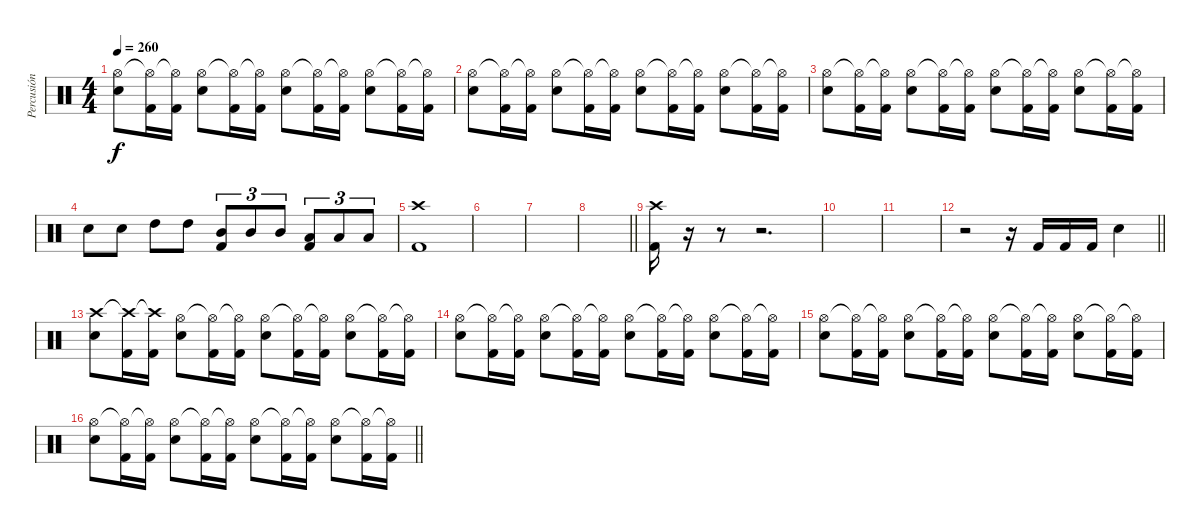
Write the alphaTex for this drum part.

\track ("Percusión" "Percusión") {instrument percussion}
\staff {score}
\articulation defaults
\ts (4 4)
\tempo 260
\clef neutral
\ks c
("Snare (hit) 2" "Hi-Hat (open)").8{dy f} ("Kick (hit) 2" "Hi-Hat (open)"{t}).16 ("Kick (hit) 2" "Hi-Hat (open)"{t}).16 ("Snare (hit) 2" "Hi-Hat (open)").8 ("Kick (hit) 2" "Hi-Hat (open)"{t}).16 ("Kick (hit) 2" "Hi-Hat (open)"{t}).16 ("Snare (hit) 2" "Hi-Hat (open)").8 ("Kick (hit) 2" "Hi-Hat (open)"{t}).16 ("Kick (hit) 2" "Hi-Hat (open)"{t}).16 ("Snare (hit) 2" "Hi-Hat (open)").8 ("Kick (hit) 2" "Hi-Hat (open)"{t}).16 ("Kick (hit) 2" "Hi-Hat (open)"{t}).16 |
("Snare (hit) 2" "Hi-Hat (open)").8 ("Kick (hit) 2" "Hi-Hat (open)"{t}).16 ("Kick (hit) 2" "Hi-Hat (open)"{t}).16 ("Snare (hit) 2" "Hi-Hat (open)").8 ("Kick (hit) 2" "Hi-Hat (open)"{t}).16 ("Kick (hit) 2" "Hi-Hat (open)"{t}).16 ("Snare (hit) 2" "Hi-Hat (open)").8 ("Kick (hit) 2" "Hi-Hat (open)"{t}).16 ("Kick (hit) 2" "Hi-Hat (open)"{t}).16 ("Snare (hit) 2" "Hi-Hat (open)").8 ("Kick (hit) 2" "Hi-Hat (open)"{t}).16 ("Kick (hit) 2" "Hi-Hat (open)"{t}).16 |
("Snare (hit) 2" "Hi-Hat (open)").8 ("Kick (hit) 2" "Hi-Hat (open)"{t}).16 ("Kick (hit) 2" "Hi-Hat (open)"{t}).16 ("Snare (hit) 2" "Hi-Hat (open)").8 ("Kick (hit) 2" "Hi-Hat (open)"{t}).16 ("Kick (hit) 2" "Hi-Hat (open)"{t}).16 ("Snare (hit) 2" "Hi-Hat (open)").8 ("Kick (hit) 2" "Hi-Hat (open)"{t}).16 ("Kick (hit) 2" "Hi-Hat (open)"{t}).16 ("Snare (hit) 2" "Hi-Hat (open)").8 ("Kick (hit) 2" "Hi-Hat (open)"{t}).16 ("Kick (hit) 2" "Hi-Hat (open)"{t}).16 |
"Snare (hit) 2".8 "Snare (hit) 2".8 "High Tom (hit)".8 "High Tom (hit)".8 ("Kick (hit) 2" "Mid Tom (hit)").8{tu (3 2)} "Mid Tom (hit)".8{tu (3 2)} "Mid Tom (hit)".8{tu (3 2)} ("Kick (hit) 2" "Low Tom (hit)").8{tu (3 2)} "Low Tom (hit)".8{tu (3 2)} "Low Tom (hit)".8{tu (3 2)} |
("Kick (hit) 2" "Crash high (hit)").1 |
|
|
\barLineRight lightlight
|
("Kick (hit) 2" "Crash high (hit)").16 r.16 r.8 r.2{d} |
|
|
\barLineRight lightlight
r.2 r.16 "Kick (hit) 2".16 "Kick (hit) 2".16 "Kick (hit) 2".16 "Snare (hit) 2".4 |
("Snare (hit) 2" "Crash high (hit)").8 ("Kick (hit) 2" "Crash high (hit)"{t}).16 ("Kick (hit) 2" "Crash high (hit)"{t}).16 ("Snare (hit) 2" "Hi-Hat (open)").8 ("Kick (hit) 2" "Hi-Hat (open)"{t}).16 ("Kick (hit) 2" "Hi-Hat (open)"{t}).16 ("Snare (hit) 2" "Hi-Hat (open)").8 ("Kick (hit) 2" "Hi-Hat (open)"{t}).16 ("Kick (hit) 2" "Hi-Hat (open)"{t}).16 ("Snare (hit) 2" "Hi-Hat (open)").8 ("Kick (hit) 2" "Hi-Hat (open)"{t}).16 ("Kick (hit) 2" "Hi-Hat (open)"{t}).16 |
("Snare (hit) 2" "Hi-Hat (open)").8 ("Kick (hit) 2" "Hi-Hat (open)"{t}).16 ("Kick (hit) 2" "Hi-Hat (open)"{t}).16 ("Snare (hit) 2" "Hi-Hat (open)").8 ("Kick (hit) 2" "Hi-Hat (open)"{t}).16 ("Kick (hit) 2" "Hi-Hat (open)"{t}).16 ("Snare (hit) 2" "Hi-Hat (open)").8 ("Kick (hit) 2" "Hi-Hat (open)"{t}).16 ("Kick (hit) 2" "Hi-Hat (open)"{t}).16 ("Snare (hit) 2" "Hi-Hat (open)").8 ("Kick (hit) 2" "Hi-Hat (open)"{t}).16 ("Kick (hit) 2" "Hi-Hat (open)"{t}).16 |
("Snare (hit) 2" "Hi-Hat (open)").8 ("Kick (hit) 2" "Hi-Hat (open)"{t}).16 ("Kick (hit) 2" "Hi-Hat (open)"{t}).16 ("Snare (hit) 2" "Hi-Hat (open)").8 ("Kick (hit) 2" "Hi-Hat (open)"{t}).16 ("Kick (hit) 2" "Hi-Hat (open)"{t}).16 ("Snare (hit) 2" "Hi-Hat (open)").8 ("Kick (hit) 2" "Hi-Hat (open)"{t}).16 ("Kick (hit) 2" "Hi-Hat (open)"{t}).16 ("Snare (hit) 2" "Hi-Hat (open)").8 ("Kick (hit) 2" "Hi-Hat (open)"{t}).16 ("Kick (hit) 2" "Hi-Hat (open)"{t}).16 |
\barLineRight lightlight
("Snare (hit) 2" "Hi-Hat (open)").8 ("Kick (hit) 2" "Hi-Hat (open)"{t}).16 ("Kick (hit) 2" "Hi-Hat (open)"{t}).16 ("Snare (hit) 2" "Hi-Hat (open)").8 ("Kick (hit) 2" "Hi-Hat (open)"{t}).16 ("Kick (hit) 2" "Hi-Hat (open)"{t}).16 ("Snare (hit) 2" "Hi-Hat (open)").8 ("Kick (hit) 2" "Hi-Hat (open)"{t}).16 ("Kick (hit) 2" "Hi-Hat (open)"{t}).16 ("Snare (hit) 2" "Hi-Hat (open)").8 ("Kick (hit) 2" "Hi-Hat (open)"{t}).16 ("Kick (hit) 2" "Hi-Hat (open)"{t}).16
